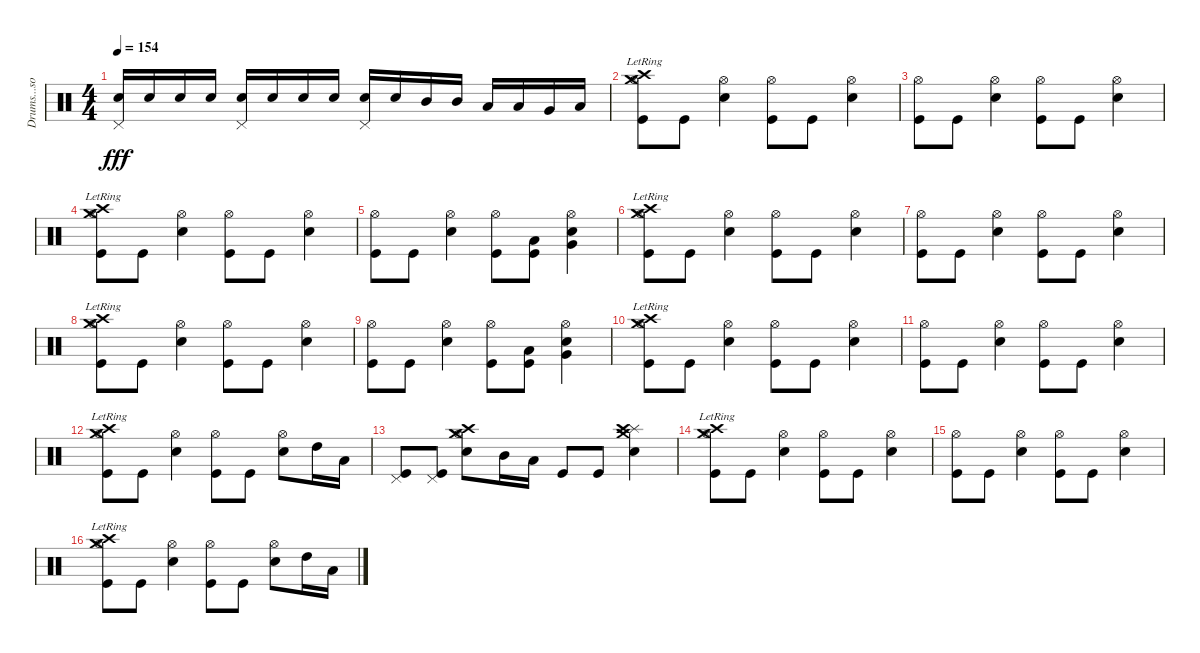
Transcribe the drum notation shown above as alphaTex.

\track ("Drums...song tabbed by ae" "Drums...so") {instrument percussion}
\staff {score}
\articulation defaults
\ts (4 4)
\tempo 154
\clef neutral
\ks c
("Pedal Hi-Hat (hit)" "Snare (hit) 2").16{dy fff} "Snare (hit) 2".16 "Snare (hit) 2".16 "Snare (hit) 2".16 ("Pedal Hi-Hat (hit)" "Snare (hit) 2").16 "Snare (hit) 2".16 "Snare (hit) 2".16 "Snare (hit) 2".16 ("Pedal Hi-Hat (hit)" "Snare (hit) 2").16 "Snare (hit) 2".16 "Mid Tom (hit)".16 "Mid Tom (hit)".16 "Low Tom (hit)".16 "Low Tom (hit)".16 "Very Low Tom (hit)".16 "Low Floor Tom (hit)".16 |
("Crash high (hit)"{lr} "Hi-Hat (open)" "Crash medium (hit)"{lr} "Kick (hit)").8 "Kick (hit)".8 ("Hi-Hat (open)" "Snare (hit) 2").4 ("Hi-Hat (open)" "Kick (hit)").8 "Kick (hit)".8 ("Hi-Hat (open)" "Snare (hit) 2").4 |
("Hi-Hat (open)" "Kick (hit)").8 "Kick (hit)".8 ("Hi-Hat (open)" "Snare (hit) 2").4 ("Hi-Hat (open)" "Kick (hit)").8 "Kick (hit)".8 ("Hi-Hat (open)" "Snare (hit) 2").4 |
("Crash high (hit)"{lr} "Hi-Hat (open)" "Crash medium (hit)"{lr} "Kick (hit)").8 "Kick (hit)".8 ("Hi-Hat (open)" "Snare (hit) 2").4 ("Hi-Hat (open)" "Kick (hit)").8 "Kick (hit)".8 ("Hi-Hat (open)" "Snare (hit) 2").4 |
("Hi-Hat (open)" "Kick (hit)").8 "Kick (hit)".8 ("Hi-Hat (open)" "Snare (hit) 2").4 ("Hi-Hat (open)" "Kick (hit)").8 ("Low Tom (hit)" "Kick (hit)").8 ("Hi-Hat (open)" "Very Low Tom (hit)" "Snare (hit) 2").4 |
("Crash high (hit)"{lr} "Hi-Hat (open)" "Crash medium (hit)"{lr} "Kick (hit)").8 "Kick (hit)".8 ("Hi-Hat (open)" "Snare (hit) 2").4 ("Hi-Hat (open)" "Kick (hit)").8 "Kick (hit)".8 ("Hi-Hat (open)" "Snare (hit) 2").4 |
("Hi-Hat (open)" "Kick (hit)").8 "Kick (hit)".8 ("Hi-Hat (open)" "Snare (hit) 2").4 ("Hi-Hat (open)" "Kick (hit)").8 "Kick (hit)".8 ("Hi-Hat (open)" "Snare (hit) 2").4 |
("Crash high (hit)"{lr} "Hi-Hat (open)" "Crash medium (hit)"{lr} "Kick (hit)").8 "Kick (hit)".8 ("Hi-Hat (open)" "Snare (hit) 2").4 ("Hi-Hat (open)" "Kick (hit)").8 "Kick (hit)".8 ("Hi-Hat (open)" "Snare (hit) 2").4 |
("Hi-Hat (open)" "Kick (hit)").8 "Kick (hit)".8 ("Hi-Hat (open)" "Snare (hit) 2").4 ("Hi-Hat (open)" "Kick (hit)").8 ("Low Tom (hit)" "Kick (hit)").8 ("Hi-Hat (open)" "Very Low Tom (hit)" "Snare (hit) 2").4 |
("Crash high (hit)"{lr} "Hi-Hat (open)" "Crash medium (hit)"{lr} "Kick (hit)").8 "Kick (hit)".8 ("Hi-Hat (open)" "Snare (hit) 2").4 ("Hi-Hat (open)" "Kick (hit)").8 "Kick (hit)".8 ("Hi-Hat (open)" "Snare (hit) 2").4 |
("Hi-Hat (open)" "Kick (hit)").8 "Kick (hit)".8 ("Hi-Hat (open)" "Snare (hit) 2").4 ("Hi-Hat (open)" "Kick (hit)").8 "Kick (hit)".8 ("Hi-Hat (open)" "Snare (hit) 2").4 |
("Crash high (hit)"{lr} "Hi-Hat (open)" "Crash medium (hit)"{lr} "Kick (hit)").8 "Kick (hit)".8 ("Hi-Hat (open)" "Snare (hit) 2").4 ("Hi-Hat (open)" "Kick (hit)").8 "Kick (hit)".8 ("Hi-Hat (open)" "Snare (hit) 2").8 "High Tom (hit)".16 "Low Tom (hit)".16 |
("Pedal Hi-Hat (hit)" "Kick (hit)").8 ("Pedal Hi-Hat (hit)" "Kick (hit)").8 ("Crash high (hit)" "Crash medium (hit)" "Hi-Hat (open)" "Snare (hit) 2").8 "Mid Tom (hit)".16 "Low Tom (hit)".16 "Kick (hit)".8 "Kick (hit)".8 ("Crash medium (hit)" "Splash (hit)" "Crash high (hit)" "Snare (hit) 2").4 |
("Crash high (hit)"{lr} "Hi-Hat (open)" "Crash medium (hit)"{lr} "Kick (hit)").8 "Kick (hit)".8 ("Hi-Hat (open)" "Snare (hit) 2").4 ("Hi-Hat (open)" "Kick (hit)").8 "Kick (hit)".8 ("Hi-Hat (open)" "Snare (hit) 2").4 |
("Hi-Hat (open)" "Kick (hit)").8 "Kick (hit)".8 ("Hi-Hat (open)" "Snare (hit) 2").4 ("Hi-Hat (open)" "Kick (hit)").8 "Kick (hit)".8 ("Hi-Hat (open)" "Snare (hit) 2").4 |
("Crash high (hit)"{lr} "Hi-Hat (open)" "Crash medium (hit)"{lr} "Kick (hit)").8 "Kick (hit)".8 ("Hi-Hat (open)" "Snare (hit) 2").4 ("Hi-Hat (open)" "Kick (hit)").8 "Kick (hit)".8 ("Hi-Hat (open)" "Snare (hit) 2").8 "High Tom (hit)".16 "Low Tom (hit)".16
